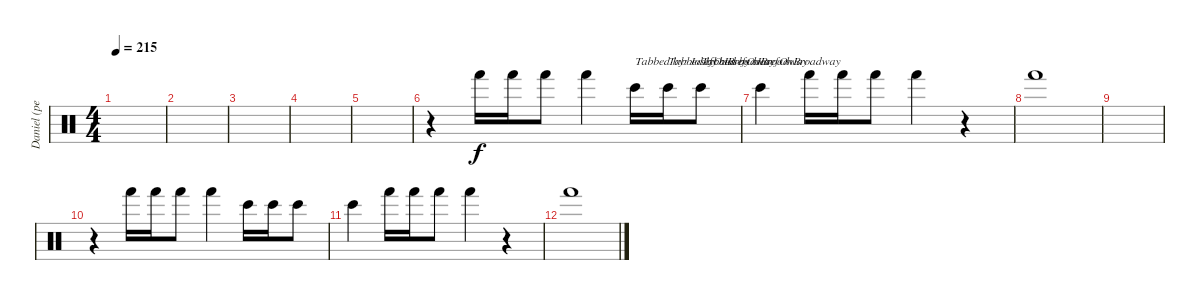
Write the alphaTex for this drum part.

\track ("Daniel (percussion)" "Daniel (pe") {instrument percussion}
\staff {score}
\articulation defaults
\ts (4 4)
\tempo 215
\clef neutral
\ks c
|
|
|
|
|
r.4 "Hand (hit)".16 "Hand (hit)".16 "Hand (hit)".8 "Hand (hit)".4 "Bongo High (hit)".16{txt "Tabbed by: JosefOnBroadway"} "Bongo High (hit)".16{txt "Tabbed by :JosefOnBroadway"} "Bongo High (hit)".8{txt "Tabbed by :JosefOnBroadway"} |
"Bongo High (hit)".4 "Hand (hit)".16 "Hand (hit)".16 "Hand (hit)".8 "Hand (hit)".4 r.4 |
"Hand (hit)".1 |
|
r.4 "Hand (hit)".16 "Hand (hit)".16 "Hand (hit)".8 "Hand (hit)".4 "Bongo High (hit)".16 "Bongo High (hit)".16 "Bongo High (hit)".8 |
"Bongo High (hit)".4 "Hand (hit)".16 "Hand (hit)".16 "Hand (hit)".8 "Hand (hit)".4 r.4 |
"Hand (hit)".1
